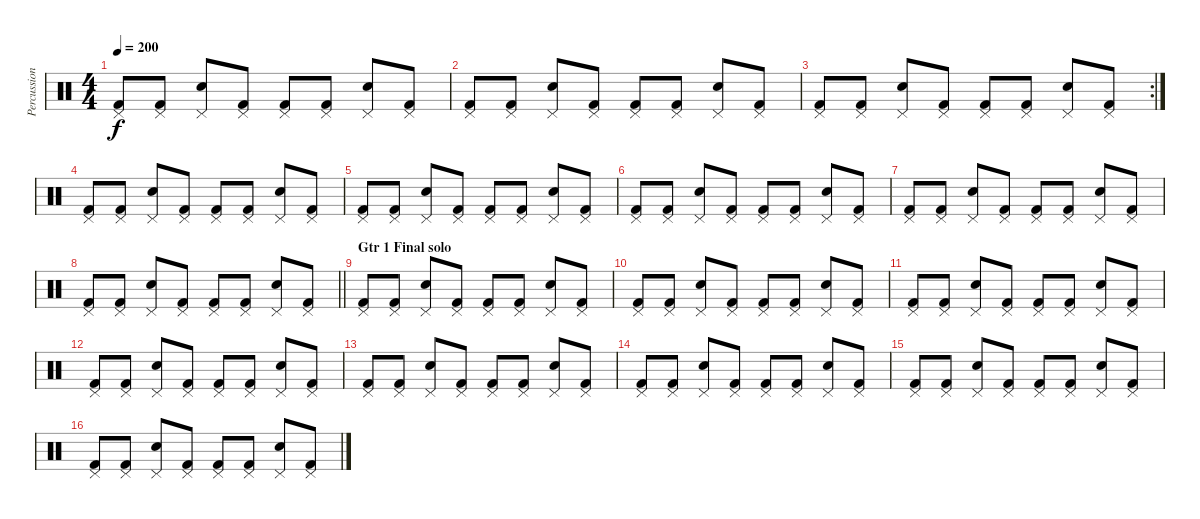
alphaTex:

\track ("Percussion" "Percussion") {instrument percussion}
\staff {score}
\articulation defaults
\ts (4 4)
\tempo 200
\clef neutral
\ks c
("Kick (hit) 2" "Pedal Hi-Hat (hit)").8{dy f} ("Kick (hit) 2" "Pedal Hi-Hat (hit)").8 ("Snare (hit) 2" "Pedal Hi-Hat (hit)").8 ("Kick (hit) 2" "Pedal Hi-Hat (hit)").8 ("Kick (hit) 2" "Pedal Hi-Hat (hit)").8 ("Kick (hit) 2" "Pedal Hi-Hat (hit)").8 ("Snare (hit) 2" "Pedal Hi-Hat (hit)").8 ("Kick (hit) 2" "Pedal Hi-Hat (hit)").8 |
("Kick (hit) 2" "Pedal Hi-Hat (hit)").8 ("Kick (hit) 2" "Pedal Hi-Hat (hit)").8 ("Snare (hit) 2" "Pedal Hi-Hat (hit)").8 ("Kick (hit) 2" "Pedal Hi-Hat (hit)").8 ("Kick (hit) 2" "Pedal Hi-Hat (hit)").8 ("Kick (hit) 2" "Pedal Hi-Hat (hit)").8 ("Snare (hit) 2" "Pedal Hi-Hat (hit)").8 ("Kick (hit) 2" "Pedal Hi-Hat (hit)").8 |
\rc 2
("Kick (hit) 2" "Pedal Hi-Hat (hit)").8 ("Kick (hit) 2" "Pedal Hi-Hat (hit)").8 ("Snare (hit) 2" "Pedal Hi-Hat (hit)").8 ("Kick (hit) 2" "Pedal Hi-Hat (hit)").8 ("Kick (hit) 2" "Pedal Hi-Hat (hit)").8 ("Kick (hit) 2" "Pedal Hi-Hat (hit)").8 ("Snare (hit) 2" "Pedal Hi-Hat (hit)").8 ("Kick (hit) 2" "Pedal Hi-Hat (hit)").8 |
("Kick (hit) 2" "Pedal Hi-Hat (hit)").8 ("Kick (hit) 2" "Pedal Hi-Hat (hit)").8 ("Snare (hit) 2" "Pedal Hi-Hat (hit)").8 ("Kick (hit) 2" "Pedal Hi-Hat (hit)").8 ("Kick (hit) 2" "Pedal Hi-Hat (hit)").8 ("Kick (hit) 2" "Pedal Hi-Hat (hit)").8 ("Snare (hit) 2" "Pedal Hi-Hat (hit)").8 ("Kick (hit) 2" "Pedal Hi-Hat (hit)").8 |
("Kick (hit) 2" "Pedal Hi-Hat (hit)").8 ("Kick (hit) 2" "Pedal Hi-Hat (hit)").8 ("Snare (hit) 2" "Pedal Hi-Hat (hit)").8 ("Kick (hit) 2" "Pedal Hi-Hat (hit)").8 ("Kick (hit) 2" "Pedal Hi-Hat (hit)").8 ("Kick (hit) 2" "Pedal Hi-Hat (hit)").8 ("Snare (hit) 2" "Pedal Hi-Hat (hit)").8 ("Kick (hit) 2" "Pedal Hi-Hat (hit)").8 |
("Kick (hit) 2" "Pedal Hi-Hat (hit)").8 ("Kick (hit) 2" "Pedal Hi-Hat (hit)").8 ("Snare (hit) 2" "Pedal Hi-Hat (hit)").8 ("Kick (hit) 2" "Pedal Hi-Hat (hit)").8 ("Kick (hit) 2" "Pedal Hi-Hat (hit)").8 ("Kick (hit) 2" "Pedal Hi-Hat (hit)").8 ("Snare (hit) 2" "Pedal Hi-Hat (hit)").8 ("Kick (hit) 2" "Pedal Hi-Hat (hit)").8 |
("Kick (hit) 2" "Pedal Hi-Hat (hit)").8 ("Kick (hit) 2" "Pedal Hi-Hat (hit)").8 ("Snare (hit) 2" "Pedal Hi-Hat (hit)").8 ("Kick (hit) 2" "Pedal Hi-Hat (hit)").8 ("Kick (hit) 2" "Pedal Hi-Hat (hit)").8 ("Kick (hit) 2" "Pedal Hi-Hat (hit)").8 ("Snare (hit) 2" "Pedal Hi-Hat (hit)").8 ("Kick (hit) 2" "Pedal Hi-Hat (hit)").8 |
\barLineRight lightlight
("Kick (hit) 2" "Pedal Hi-Hat (hit)").8 ("Kick (hit) 2" "Pedal Hi-Hat (hit)").8 ("Snare (hit) 2" "Pedal Hi-Hat (hit)").8 ("Kick (hit) 2" "Pedal Hi-Hat (hit)").8 ("Kick (hit) 2" "Pedal Hi-Hat (hit)").8 ("Kick (hit) 2" "Pedal Hi-Hat (hit)").8 ("Snare (hit) 2" "Pedal Hi-Hat (hit)").8 ("Kick (hit) 2" "Pedal Hi-Hat (hit)").8 |
\section ("" "Gtr 1 Final solo")
("Kick (hit) 2" "Pedal Hi-Hat (hit)").8 ("Kick (hit) 2" "Pedal Hi-Hat (hit)").8 ("Snare (hit) 2" "Pedal Hi-Hat (hit)").8 ("Kick (hit) 2" "Pedal Hi-Hat (hit)").8 ("Kick (hit) 2" "Pedal Hi-Hat (hit)").8 ("Kick (hit) 2" "Pedal Hi-Hat (hit)").8 ("Snare (hit) 2" "Pedal Hi-Hat (hit)").8 ("Kick (hit) 2" "Pedal Hi-Hat (hit)").8 |
("Kick (hit) 2" "Pedal Hi-Hat (hit)").8 ("Kick (hit) 2" "Pedal Hi-Hat (hit)").8 ("Snare (hit) 2" "Pedal Hi-Hat (hit)").8 ("Kick (hit) 2" "Pedal Hi-Hat (hit)").8 ("Kick (hit) 2" "Pedal Hi-Hat (hit)").8 ("Kick (hit) 2" "Pedal Hi-Hat (hit)").8 ("Snare (hit) 2" "Pedal Hi-Hat (hit)").8 ("Kick (hit) 2" "Pedal Hi-Hat (hit)").8 |
("Kick (hit) 2" "Pedal Hi-Hat (hit)").8 ("Kick (hit) 2" "Pedal Hi-Hat (hit)").8 ("Snare (hit) 2" "Pedal Hi-Hat (hit)").8 ("Kick (hit) 2" "Pedal Hi-Hat (hit)").8 ("Kick (hit) 2" "Pedal Hi-Hat (hit)").8 ("Kick (hit) 2" "Pedal Hi-Hat (hit)").8 ("Snare (hit) 2" "Pedal Hi-Hat (hit)").8 ("Kick (hit) 2" "Pedal Hi-Hat (hit)").8 |
("Kick (hit) 2" "Pedal Hi-Hat (hit)").8 ("Kick (hit) 2" "Pedal Hi-Hat (hit)").8 ("Snare (hit) 2" "Pedal Hi-Hat (hit)").8 ("Kick (hit) 2" "Pedal Hi-Hat (hit)").8 ("Kick (hit) 2" "Pedal Hi-Hat (hit)").8 ("Kick (hit) 2" "Pedal Hi-Hat (hit)").8 ("Snare (hit) 2" "Pedal Hi-Hat (hit)").8 ("Kick (hit) 2" "Pedal Hi-Hat (hit)").8 |
("Kick (hit) 2" "Pedal Hi-Hat (hit)").8 ("Kick (hit) 2" "Pedal Hi-Hat (hit)").8 ("Snare (hit) 2" "Pedal Hi-Hat (hit)").8 ("Kick (hit) 2" "Pedal Hi-Hat (hit)").8 ("Kick (hit) 2" "Pedal Hi-Hat (hit)").8 ("Kick (hit) 2" "Pedal Hi-Hat (hit)").8 ("Snare (hit) 2" "Pedal Hi-Hat (hit)").8 ("Kick (hit) 2" "Pedal Hi-Hat (hit)").8 |
("Kick (hit) 2" "Pedal Hi-Hat (hit)").8 ("Kick (hit) 2" "Pedal Hi-Hat (hit)").8 ("Snare (hit) 2" "Pedal Hi-Hat (hit)").8 ("Kick (hit) 2" "Pedal Hi-Hat (hit)").8 ("Kick (hit) 2" "Pedal Hi-Hat (hit)").8 ("Kick (hit) 2" "Pedal Hi-Hat (hit)").8 ("Snare (hit) 2" "Pedal Hi-Hat (hit)").8 ("Kick (hit) 2" "Pedal Hi-Hat (hit)").8 |
("Kick (hit) 2" "Pedal Hi-Hat (hit)").8 ("Kick (hit) 2" "Pedal Hi-Hat (hit)").8 ("Snare (hit) 2" "Pedal Hi-Hat (hit)").8 ("Kick (hit) 2" "Pedal Hi-Hat (hit)").8 ("Kick (hit) 2" "Pedal Hi-Hat (hit)").8 ("Kick (hit) 2" "Pedal Hi-Hat (hit)").8 ("Snare (hit) 2" "Pedal Hi-Hat (hit)").8 ("Kick (hit) 2" "Pedal Hi-Hat (hit)").8 |
("Kick (hit) 2" "Pedal Hi-Hat (hit)").8 ("Kick (hit) 2" "Pedal Hi-Hat (hit)").8 ("Snare (hit) 2" "Pedal Hi-Hat (hit)").8 ("Kick (hit) 2" "Pedal Hi-Hat (hit)").8 ("Kick (hit) 2" "Pedal Hi-Hat (hit)").8 ("Kick (hit) 2" "Pedal Hi-Hat (hit)").8 ("Snare (hit) 2" "Pedal Hi-Hat (hit)").8 ("Kick (hit) 2" "Pedal Hi-Hat (hit)").8
